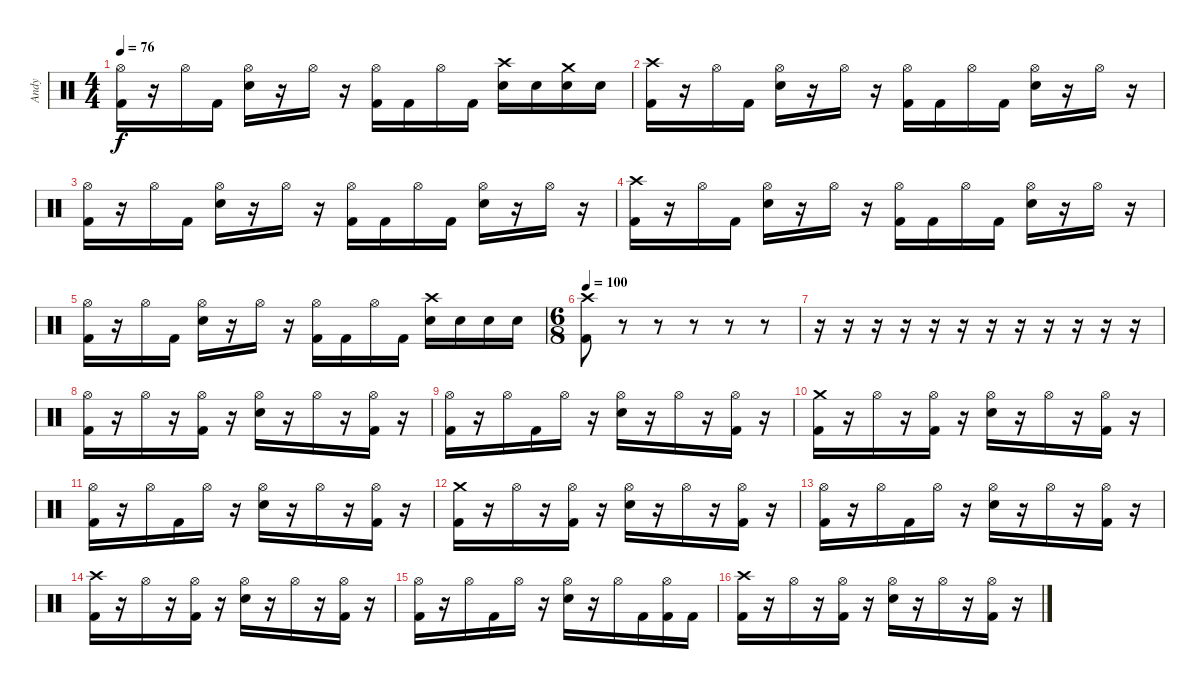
\track ("Andy" "Andy") {instrument percussion}
\staff {score}
\articulation defaults
\ts (4 4)
\tempo 76
\clef neutral
\ks c
("Hi-Hat (open)" "Kick (hit) 2").16{dy f} r.16 "Hi-Hat (open)".16 "Kick (hit) 2".16 ("Hi-Hat (open)" "Electric Snare (hit)").16 r.16 "Hi-Hat (open)".16 r.16 ("Hi-Hat (open)" "Kick (hit) 2").16 "Kick (hit) 2".16 "Hi-Hat (open)".16 "Kick (hit) 2".16 ("Crash high (hit)" "Electric Snare (hit)").16 "Electric Snare (hit)".16 ("Crash medium (hit)" "Electric Snare (hit)").16 "Electric Snare (hit)".16 |
("Crash high (hit)" "Kick (hit) 2").16 r.16 "Hi-Hat (open)".16 "Kick (hit) 2".16 ("Hi-Hat (open)" "Electric Snare (hit)").16 r.16 "Hi-Hat (open)".16 r.16 ("Hi-Hat (open)" "Kick (hit) 2").16 "Kick (hit) 2".16 "Hi-Hat (open)".16 "Kick (hit) 2".16 ("Hi-Hat (open)" "Electric Snare (hit)").16 r.16 "Hi-Hat (open)".16 r.16 |
("Hi-Hat (open)" "Kick (hit) 2").16 r.16 "Hi-Hat (open)".16 "Kick (hit) 2".16 ("Hi-Hat (open)" "Electric Snare (hit)").16 r.16 "Hi-Hat (open)".16 r.16 ("Hi-Hat (open)" "Kick (hit) 2").16 "Kick (hit) 2".16 "Hi-Hat (open)".16 "Kick (hit) 2".16 ("Hi-Hat (open)" "Electric Snare (hit)").16 r.16 "Hi-Hat (open)".16 r.16 |
("Crash high (hit)" "Kick (hit) 2").16 r.16 "Hi-Hat (open)".16 "Kick (hit) 2".16 ("Hi-Hat (open)" "Electric Snare (hit)").16 r.16 "Hi-Hat (open)".16 r.16 ("Hi-Hat (open)" "Kick (hit) 2").16 "Kick (hit) 2".16 "Hi-Hat (open)".16 "Kick (hit) 2".16 ("Hi-Hat (open)" "Electric Snare (hit)").16 r.16 "Hi-Hat (open)".16 r.16 |
("Hi-Hat (open)" "Kick (hit) 2").16 r.16 "Hi-Hat (open)".16 "Kick (hit) 2".16 ("Hi-Hat (open)" "Electric Snare (hit)").16 r.16 "Hi-Hat (open)".16 r.16 ("Hi-Hat (open)" "Kick (hit) 2").16 "Kick (hit) 2".16 "Hi-Hat (open)".16 "Kick (hit) 2".16 ("Crash high (hit)" "Electric Snare (hit)").16 "Electric Snare (hit)".16 "Electric Snare (hit)".16 "Electric Snare (hit)".16 |
\ts (6 8)
\tempo 100
("Crash high (hit)" "Kick (hit) 2").8 r.8 r.8 r.8 r.8 r.8 |
r.16 r.16 r.16 r.16 r.16 r.16 r.16 r.16 r.16 r.16 r.16 r.16 |
("Hi-Hat (open)" "Kick (hit) 2").16 r.16 "Hi-Hat (open)".16 r.16 ("Hi-Hat (open)" "Kick (hit) 2").16 r.16 ("Hi-Hat (open)" "Electric Snare (hit)").16 r.16 "Hi-Hat (open)".16 r.16 ("Hi-Hat (open)" "Kick (hit) 2").16 r.16 |
("Hi-Hat (open)" "Kick (hit) 2").16 r.16 "Hi-Hat (open)".16 "Kick (hit) 2".16 "Hi-Hat (open)".16 r.16 ("Hi-Hat (open)" "Electric Snare (hit)").16 r.16 "Hi-Hat (open)".16 r.16 ("Hi-Hat (open)" "Kick (hit) 2").16 r.16 |
("Crash medium (hit)" "Kick (hit) 2").16 r.16 "Hi-Hat (open)".16 r.16 ("Hi-Hat (open)" "Kick (hit) 2").16 r.16 ("Hi-Hat (open)" "Electric Snare (hit)").16 r.16 "Hi-Hat (open)".16 r.16 ("Hi-Hat (open)" "Kick (hit) 2").16 r.16 |
("Hi-Hat (open)" "Kick (hit) 2").16 r.16 "Hi-Hat (open)".16 "Kick (hit) 2".16 "Hi-Hat (open)".16 r.16 ("Hi-Hat (open)" "Electric Snare (hit)").16 r.16 "Hi-Hat (open)".16 r.16 ("Hi-Hat (open)" "Kick (hit) 2").16 r.16 |
("Crash medium (hit)" "Kick (hit) 2").16 r.16 "Hi-Hat (open)".16 r.16 ("Hi-Hat (open)" "Kick (hit) 2").16 r.16 ("Hi-Hat (open)" "Electric Snare (hit)").16 r.16 "Hi-Hat (open)".16 r.16 ("Hi-Hat (open)" "Kick (hit) 2").16 r.16 |
("Hi-Hat (open)" "Kick (hit) 2").16 r.16 "Hi-Hat (open)".16 "Kick (hit) 2".16 "Hi-Hat (open)".16 r.16 ("Hi-Hat (open)" "Electric Snare (hit)").16 r.16 "Hi-Hat (open)".16 r.16 ("Hi-Hat (open)" "Kick (hit) 2").16 r.16 |
("Crash high (hit)" "Kick (hit) 2").16 r.16 "Hi-Hat (open)".16 r.16 ("Hi-Hat (open)" "Kick (hit) 2").16 r.16 ("Hi-Hat (open)" "Electric Snare (hit)").16 r.16 "Hi-Hat (open)".16 r.16 ("Hi-Hat (open)" "Kick (hit) 2").16 r.16 |
("Hi-Hat (open)" "Kick (hit) 2").16 r.16 "Hi-Hat (open)".16 "Kick (hit) 2".16 "Hi-Hat (open)".16 r.16 ("Hi-Hat (open)" "Electric Snare (hit)").16 r.16 "Hi-Hat (open)".16 "Kick (hit) 2".16 ("Hi-Hat (open)" "Kick (hit) 2").16 "Kick (hit) 2".16 |
("Crash high (hit)" "Kick (hit) 2").16 r.16 "Hi-Hat (open)".16 r.16 ("Hi-Hat (open)" "Kick (hit) 2").16 r.16 ("Hi-Hat (open)" "Electric Snare (hit)").16 r.16 "Hi-Hat (open)".16 r.16 ("Hi-Hat (open)" "Kick (hit) 2").16 r.16
